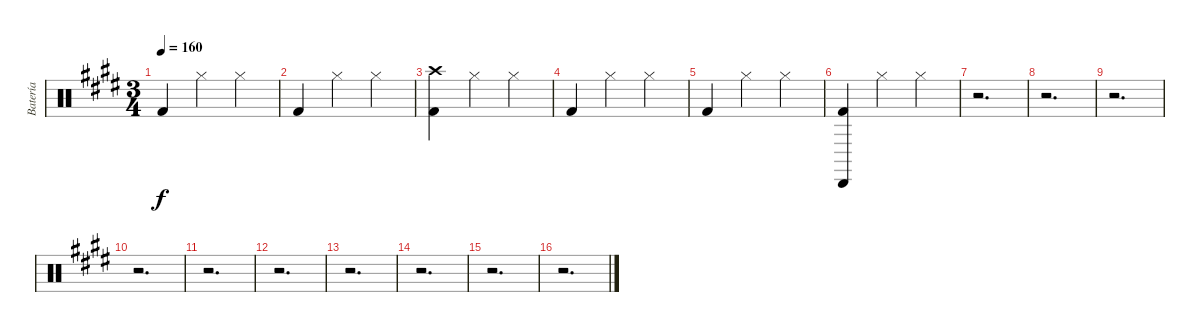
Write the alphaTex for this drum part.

\track ("Batería" "Batería") {instrument percussion}
\staff {score}
\articulation defaults
\ts (3 4)
\tempo 160
\clef neutral
\ks c#minor "Kick (hit) 2".4{dy f} "Hi-Hat (closed)".4 "Hi-Hat (closed)".4
|
"Kick (hit) 2".4 "Hi-Hat (closed)".4 "Hi-Hat (closed)".4 |
("Crash high (hit)" "Kick (hit) 2").4 "Hi-Hat (closed)".4 "Hi-Hat (closed)".4 |
"Kick (hit) 2".4 "Hi-Hat (closed)".4 "Hi-Hat (closed)".4 |
"Kick (hit) 2".4 "Hi-Hat (closed)".4 "Hi-Hat (closed)".4 |
("Cabasa (hit)" "Kick (hit) 2").4 "Hi-Hat (closed)".4 "Hi-Hat (closed)".4 |
r.2{d} |
r.2{d} |
r.2{d} |
r.2{d} |
r.2{d} |
r.2{d} |
r.2{d} |
r.2{d} |
r.2{d} |
r.2{d}
